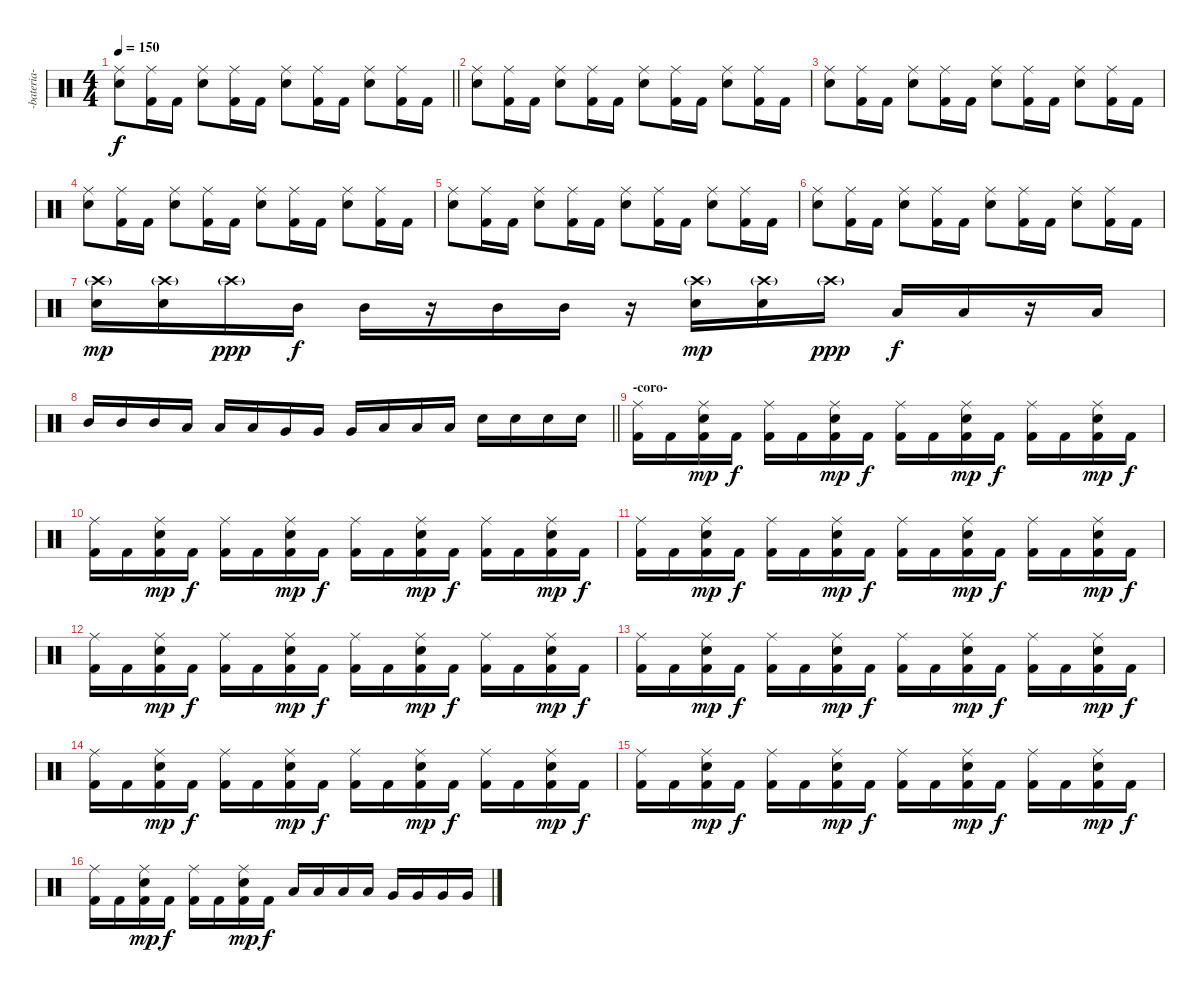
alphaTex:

\track ("-bateria-" "-bateria-") {instrument percussion}
\staff {score}
\articulation defaults
\ts (4 4)
\tempo 150
\clef neutral
\barLineRight lightlight
\ks c
("Ride (middle)" "Electric Snare (hit)").8{dy f} ("Ride (middle)" "Kick (hit) 2").16 "Kick (hit) 2".16 ("Ride (middle)" "Electric Snare (hit)").8 ("Ride (middle)" "Kick (hit) 2").16 "Kick (hit) 2".16 ("Ride (middle)" "Electric Snare (hit)").8 ("Ride (middle)" "Kick (hit) 2").16 "Kick (hit) 2".16 ("Ride (middle)" "Electric Snare (hit)").8 ("Ride (middle)" "Kick (hit) 2").16 "Kick (hit) 2".16 |
("Ride (middle)" "Electric Snare (hit)").8 ("Ride (middle)" "Kick (hit) 2").16 "Kick (hit) 2".16 ("Ride (middle)" "Electric Snare (hit)").8 ("Ride (middle)" "Kick (hit) 2").16 "Kick (hit) 2".16 ("Ride (middle)" "Electric Snare (hit)").8 ("Ride (middle)" "Kick (hit) 2").16 "Kick (hit) 2".16 ("Ride (middle)" "Electric Snare (hit)").8 ("Ride (middle)" "Kick (hit) 2").16 "Kick (hit) 2".16 |
("Ride (middle)" "Electric Snare (hit)").8 ("Ride (middle)" "Kick (hit) 2").16 "Kick (hit) 2".16 ("Ride (middle)" "Electric Snare (hit)").8 ("Ride (middle)" "Kick (hit) 2").16 "Kick (hit) 2".16 ("Ride (middle)" "Electric Snare (hit)").8 ("Ride (middle)" "Kick (hit) 2").16 "Kick (hit) 2".16 ("Ride (middle)" "Electric Snare (hit)").8 ("Ride (middle)" "Kick (hit) 2").16 "Kick (hit) 2".16 |
("Ride (middle)" "Electric Snare (hit)").8 ("Ride (middle)" "Kick (hit) 2").16 "Kick (hit) 2".16 ("Ride (middle)" "Electric Snare (hit)").8 ("Ride (middle)" "Kick (hit) 2").16 "Kick (hit) 2".16 ("Ride (middle)" "Electric Snare (hit)").8 ("Ride (middle)" "Kick (hit) 2").16 "Kick (hit) 2".16 ("Ride (middle)" "Electric Snare (hit)").8 ("Ride (middle)" "Kick (hit) 2").16 "Kick (hit) 2".16 |
("Ride (middle)" "Electric Snare (hit)").8 ("Ride (middle)" "Kick (hit) 2").16 "Kick (hit) 2".16 ("Ride (middle)" "Electric Snare (hit)").8 ("Ride (middle)" "Kick (hit) 2").16 "Kick (hit) 2".16 ("Ride (middle)" "Electric Snare (hit)").8 ("Ride (middle)" "Kick (hit) 2").16 "Kick (hit) 2".16 ("Ride (middle)" "Electric Snare (hit)").8 ("Ride (middle)" "Kick (hit) 2").16 "Kick (hit) 2".16 |
("Ride (middle)" "Electric Snare (hit)").8 ("Ride (middle)" "Kick (hit) 2").16 "Kick (hit) 2".16 ("Ride (middle)" "Electric Snare (hit)").8 ("Ride (middle)" "Kick (hit) 2").16 "Kick (hit) 2".16 ("Ride (middle)" "Electric Snare (hit)").8 ("Ride (middle)" "Kick (hit) 2").16 "Kick (hit) 2".16 ("Ride (middle)" "Electric Snare (hit)").8 ("Ride (middle)" "Kick (hit) 2").16 "Kick (hit) 2".16 |
("Crash high (hit)"{g} "Electric Snare (hit)").16{dy mp} ("Crash high (hit)"{g} "Electric Snare (hit)").16 "Crash high (hit)"{g}.16{dy ppp} "Mid Tom (hit)".16{dy f} "Mid Tom (hit)".16 r.16 "Mid Tom (hit)".16 "Mid Tom (hit)".16 r.16 ("Crash high (hit)"{g} "Electric Snare (hit)").16{dy mp} ("Crash high (hit)"{g} "Electric Snare (hit)").16 "Crash high (hit)"{g}.16{dy ppp} "Low Tom (hit)".16{dy f} "Low Tom (hit)".16 r.16 "Low Tom (hit)".16 |
\barLineRight lightlight "Mid Tom (hit)".16 "Mid Tom (hit)".16 "Mid Tom (hit)".16 "Low Tom (hit)".16 "Low Tom (hit)".16 "Low Tom (hit)".16 "Very Low Tom (hit)".16 "Very Low Tom (hit)".16 "Very Low Tom (hit)".16 "Low Floor Tom (hit)".16 "Low Floor Tom (hit)".16 "Low Floor Tom (hit)".16 "Electric Snare (hit)".16 "Electric Snare (hit)".16 "Electric Snare (hit)".16 "Electric Snare (hit)".16
|
\section ("" "-coro-")
("Ride (middle)" "Kick (hit) 2").16 "Kick (hit) 2".16 ("Ride (middle)" "Electric Snare (hit)" "Kick (hit) 2").16{dy mp} "Kick (hit) 2".16{dy f} ("Ride (middle)" "Kick (hit) 2").16 "Kick (hit) 2".16 ("Ride (middle)" "Electric Snare (hit)" "Kick (hit) 2").16{dy mp} "Kick (hit) 2".16{dy f} ("Ride (middle)" "Kick (hit) 2").16 "Kick (hit) 2".16 ("Ride (middle)" "Electric Snare (hit)" "Kick (hit) 2").16{dy mp} "Kick (hit) 2".16{dy f} ("Ride (middle)" "Kick (hit) 2").16 "Kick (hit) 2".16 ("Ride (middle)" "Electric Snare (hit)" "Kick (hit) 2").16{dy mp} "Kick (hit) 2".16{dy f} |
("Ride (middle)" "Kick (hit) 2").16 "Kick (hit) 2".16 ("Ride (middle)" "Electric Snare (hit)" "Kick (hit) 2").16{dy mp} "Kick (hit) 2".16{dy f} ("Ride (middle)" "Kick (hit) 2").16 "Kick (hit) 2".16 ("Ride (middle)" "Electric Snare (hit)" "Kick (hit) 2").16{dy mp} "Kick (hit) 2".16{dy f} ("Ride (middle)" "Kick (hit) 2").16 "Kick (hit) 2".16 ("Ride (middle)" "Electric Snare (hit)" "Kick (hit) 2").16{dy mp} "Kick (hit) 2".16{dy f} ("Ride (middle)" "Kick (hit) 2").16 "Kick (hit) 2".16 ("Ride (middle)" "Electric Snare (hit)" "Kick (hit) 2").16{dy mp} "Kick (hit) 2".16{dy f} |
("Ride (middle)" "Kick (hit) 2").16 "Kick (hit) 2".16 ("Ride (middle)" "Electric Snare (hit)" "Kick (hit) 2").16{dy mp} "Kick (hit) 2".16{dy f} ("Ride (middle)" "Kick (hit) 2").16 "Kick (hit) 2".16 ("Ride (middle)" "Electric Snare (hit)" "Kick (hit) 2").16{dy mp} "Kick (hit) 2".16{dy f} ("Ride (middle)" "Kick (hit) 2").16 "Kick (hit) 2".16 ("Ride (middle)" "Electric Snare (hit)" "Kick (hit) 2").16{dy mp} "Kick (hit) 2".16{dy f} ("Ride (middle)" "Kick (hit) 2").16 "Kick (hit) 2".16 ("Ride (middle)" "Electric Snare (hit)" "Kick (hit) 2").16{dy mp} "Kick (hit) 2".16{dy f} |
("Ride (middle)" "Kick (hit) 2").16 "Kick (hit) 2".16 ("Ride (middle)" "Electric Snare (hit)" "Kick (hit) 2").16{dy mp} "Kick (hit) 2".16{dy f} ("Ride (middle)" "Kick (hit) 2").16 "Kick (hit) 2".16 ("Ride (middle)" "Electric Snare (hit)" "Kick (hit) 2").16{dy mp} "Kick (hit) 2".16{dy f} ("Ride (middle)" "Kick (hit) 2").16 "Kick (hit) 2".16 ("Ride (middle)" "Electric Snare (hit)" "Kick (hit) 2").16{dy mp} "Kick (hit) 2".16{dy f} ("Ride (middle)" "Kick (hit) 2").16 "Kick (hit) 2".16 ("Ride (middle)" "Electric Snare (hit)" "Kick (hit) 2").16{dy mp} "Kick (hit) 2".16{dy f} |
("Ride (middle)" "Kick (hit) 2").16 "Kick (hit) 2".16 ("Ride (middle)" "Electric Snare (hit)" "Kick (hit) 2").16{dy mp} "Kick (hit) 2".16{dy f} ("Ride (middle)" "Kick (hit) 2").16 "Kick (hit) 2".16 ("Ride (middle)" "Electric Snare (hit)" "Kick (hit) 2").16{dy mp} "Kick (hit) 2".16{dy f} ("Ride (middle)" "Kick (hit) 2").16 "Kick (hit) 2".16 ("Ride (middle)" "Electric Snare (hit)" "Kick (hit) 2").16{dy mp} "Kick (hit) 2".16{dy f} ("Ride (middle)" "Kick (hit) 2").16 "Kick (hit) 2".16 ("Ride (middle)" "Electric Snare (hit)" "Kick (hit) 2").16{dy mp} "Kick (hit) 2".16{dy f} |
("Ride (middle)" "Kick (hit) 2").16 "Kick (hit) 2".16 ("Ride (middle)" "Electric Snare (hit)" "Kick (hit) 2").16{dy mp} "Kick (hit) 2".16{dy f} ("Ride (middle)" "Kick (hit) 2").16 "Kick (hit) 2".16 ("Ride (middle)" "Electric Snare (hit)" "Kick (hit) 2").16{dy mp} "Kick (hit) 2".16{dy f} ("Ride (middle)" "Kick (hit) 2").16 "Kick (hit) 2".16 ("Ride (middle)" "Electric Snare (hit)" "Kick (hit) 2").16{dy mp} "Kick (hit) 2".16{dy f} ("Ride (middle)" "Kick (hit) 2").16 "Kick (hit) 2".16 ("Ride (middle)" "Electric Snare (hit)" "Kick (hit) 2").16{dy mp} "Kick (hit) 2".16{dy f} |
("Ride (middle)" "Kick (hit) 2").16 "Kick (hit) 2".16 ("Ride (middle)" "Electric Snare (hit)" "Kick (hit) 2").16{dy mp} "Kick (hit) 2".16{dy f} ("Ride (middle)" "Kick (hit) 2").16 "Kick (hit) 2".16 ("Ride (middle)" "Electric Snare (hit)" "Kick (hit) 2").16{dy mp} "Kick (hit) 2".16{dy f} ("Ride (middle)" "Kick (hit) 2").16 "Kick (hit) 2".16 ("Ride (middle)" "Electric Snare (hit)" "Kick (hit) 2").16{dy mp} "Kick (hit) 2".16{dy f} ("Ride (middle)" "Kick (hit) 2").16 "Kick (hit) 2".16 ("Ride (middle)" "Electric Snare (hit)" "Kick (hit) 2").16{dy mp} "Kick (hit) 2".16{dy f} |
("Ride (middle)" "Kick (hit) 2").16 "Kick (hit) 2".16 ("Ride (middle)" "Electric Snare (hit)" "Kick (hit) 2").16{dy mp} "Kick (hit) 2".16{dy f} ("Ride (middle)" "Kick (hit) 2").16 "Kick (hit) 2".16 ("Ride (middle)" "Electric Snare (hit)" "Kick (hit) 2").16{dy mp} "Kick (hit) 2".16{dy f} "Low Tom (hit)".16 "Low Tom (hit)".16 "Low Tom (hit)".16 "Low Tom (hit)".16 "Very Low Tom (hit)".16 "Very Low Tom (hit)".16 "Very Low Tom (hit)".16 "Very Low Tom (hit)".16
